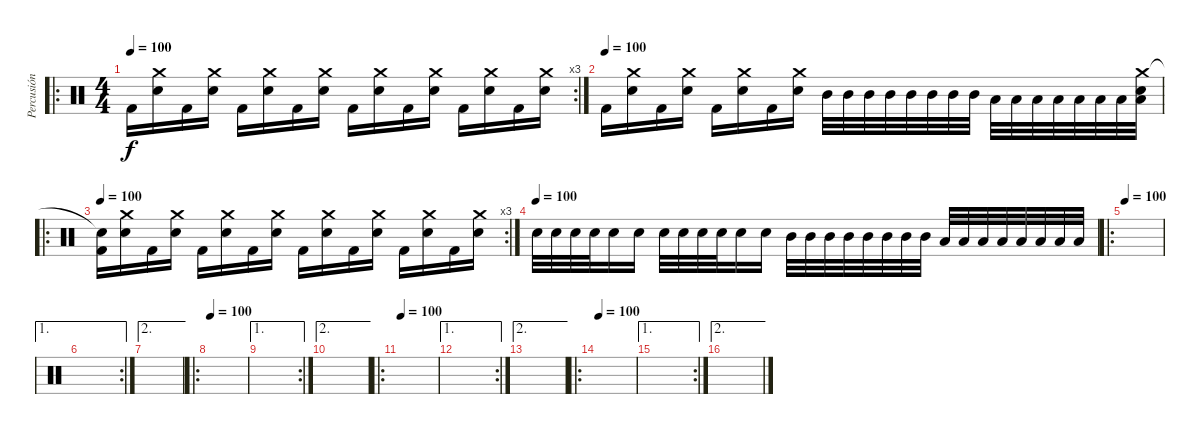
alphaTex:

\track ("Percusión" "Percusión") {instrument percussion}
\staff {score}
\articulation defaults
\ro
\rc 3
\ts (4 4)
\tempo 100
\clef neutral
\ks c "Kick (hit) 2".16{dy f}
("Crash medium (hit)" "Snare (hit) 2").16 "Kick (hit) 2".16 ("Crash medium (hit)" "Snare (hit) 2").16 "Kick (hit) 2".16 ("Crash medium (hit)" "Snare (hit) 2").16 "Kick (hit) 2".16 ("Crash medium (hit)" "Snare (hit) 2").16 "Kick (hit) 2".16 ("Crash medium (hit)" "Snare (hit) 2").16 "Kick (hit) 2".16 ("Crash medium (hit)" "Snare (hit) 2").16 "Kick (hit) 2".16 ("Crash medium (hit)" "Snare (hit) 2").16 "Kick (hit) 2".16 ("Crash medium (hit)" "Snare (hit) 2").16 |
\tempo (100)
"Kick (hit) 2".16 ("Crash medium (hit)" "Snare (hit) 2").16 "Kick (hit) 2".16 ("Crash medium (hit)" "Snare (hit) 2").16 "Kick (hit) 2".16 ("Crash medium (hit)" "Snare (hit) 2").16 "Kick (hit) 2".16 ("Crash medium (hit)" "Snare (hit) 2").16 "Mid Tom (hit)".32 "Mid Tom (hit)".32 "Mid Tom (hit)".32 "Mid Tom (hit)".32 "Mid Tom (hit)".32 "Mid Tom (hit)".32 "Mid Tom (hit)".32 "Mid Tom (hit)".32 "Low Tom (hit)".32 "Low Tom (hit)".32 "Low Tom (hit)".32 "Low Tom (hit)".32 "Low Tom (hit)".32 "Low Tom (hit)".32 "Low Tom (hit)".32 ("Crash medium (hit)" "Snare (hit) 2" "Low Tom (hit)").32 |
\ro
\rc 3
\tempo 100
("Snare (hit)"{t} "Kick (hit) 2").16 ("Crash medium (hit)" "Snare (hit) 2").16 "Kick (hit) 2".16 ("Crash medium (hit)" "Snare (hit) 2").16 "Kick (hit) 2".16 ("Crash medium (hit)" "Snare (hit) 2").16 "Kick (hit) 2".16 ("Crash medium (hit)" "Snare (hit) 2").16 "Kick (hit) 2".16 ("Crash medium (hit)" "Snare (hit) 2").16 "Kick (hit) 2".16 ("Crash medium (hit)" "Snare (hit) 2").16 "Kick (hit) 2".16 ("Crash medium (hit)" "Snare (hit) 2").16 "Kick (hit) 2".16 ("Crash medium (hit)" "Snare (hit) 2").16 |
\tempo (100)
"Electric Snare (hit)".32 "Electric Snare (hit)".32 "Electric Snare (hit)".32 "Electric Snare (hit)".32 "Snare (hit) 2".16 "Snare (hit) 2".16 "Electric Snare (hit)".32 "Electric Snare (hit)".32 "Electric Snare (hit)".32 "Electric Snare (hit)".32 "Snare (hit) 2".16 "Snare (hit) 2".16 "Mid Tom (hit)".32 "Mid Tom (hit)".32 "Mid Tom (hit)".32 "Mid Tom (hit)".32 "Mid Tom (hit)".32 "Mid Tom (hit)".32 "Mid Tom (hit)".32 "Mid Tom (hit)".32 "Low Tom (hit)".32 "Low Tom (hit)".32 "Low Tom (hit)".32 "Low Tom (hit)".32 "Low Tom (hit)".32 "Low Tom (hit)".32 "Low Tom (hit)".32 "Low Tom (hit)".32 |
\ro
\tempo 100
|
\ae 1
\rc 2
|
\ae 2
|
\ro
\tempo 100
|
\ae 1
\rc 2
|
\ae 2
|
\ro
\tempo 100
|
\ae 1
\rc 2
|
\ae 2
|
\ro
\tempo 100
|
\ae 1
\rc 2
|
\ae 2
